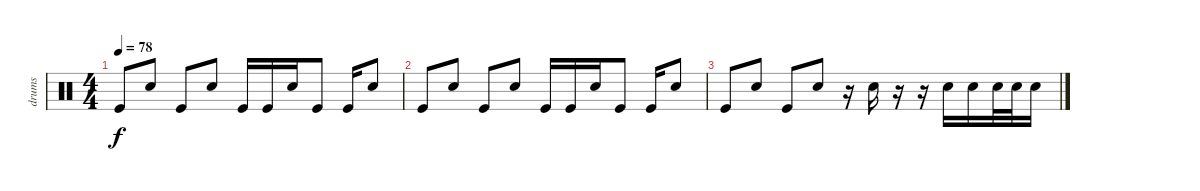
\track ("drums" "drums") {instrument percussion}
\staff {score}
\articulation defaults
\ts (4 4)
\tempo 78
\clef neutral
\ks c "Kick (hit)".8{dy f} "Snare (hit) 2".8 "Kick (hit)".8 "Snare (hit) 2".8 "Kick (hit)".16 "Kick (hit)".16 "Snare (hit) 2".16 "Kick (hit)".8 "Kick (hit)".16 "Snare (hit) 2".8
|
"Kick (hit)".8{beam Up} "Snare (hit) 2".8{beam Up} "Kick (hit)".8 "Snare (hit) 2".8 "Kick (hit)".16 "Kick (hit)".16 "Snare (hit) 2".16 "Kick (hit)".8 "Kick (hit)".16 "Snare (hit) 2".8 |
"Kick (hit)".8 "Snare (hit) 2".8 "Kick (hit)".8 "Snare (hit) 2".8 r.16 "Snare (hit) 2".16 r.16 r.16 "Snare (hit) 2".16 "Snare (hit) 2".16 "Snare (hit) 2".32 "Snare (hit) 2".32 "Snare (hit) 2".16
